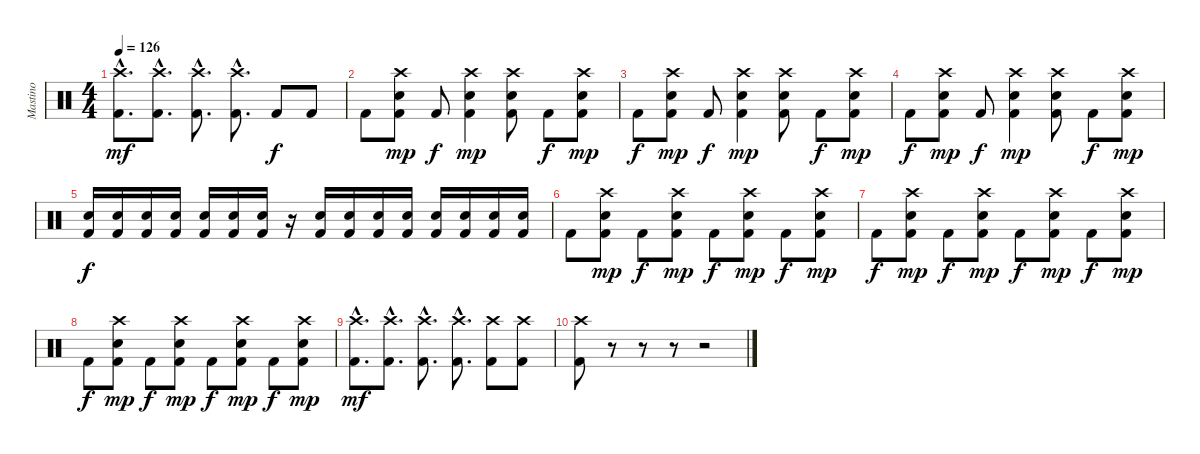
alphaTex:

\track ("Mastino" "Mastino") {instrument percussion}
\staff {score}
\articulation defaults
\ts (4 4)
\tempo 126
\clef neutral
\ks c
("Crash high (hit)"{hac} "Kick (hit) 2"{hac}).8{d dy mf} ("Crash high (hit)"{hac} "Kick (hit) 2"{hac}).8{d} ("Crash high (hit)"{hac} "Kick (hit) 2"{hac}).8{d} ("Crash high (hit)"{hac} "Kick (hit) 2"{hac}).8{d} "Kick (hit) 2".8{dy f} "Kick (hit) 2".8 |
"Kick (hit) 2".8 ("Crash high (hit)" "Electric Snare (hit)" "Kick (hit) 2").8{dy mp} "Kick (hit) 2".8{dy f} ("Crash high (hit)" "Electric Snare (hit)" "Kick (hit) 2").4{dy mp} ("Crash high (hit)" "Electric Snare (hit)" "Kick (hit) 2").8 "Kick (hit) 2".8{dy f} ("Crash high (hit)" "Electric Snare (hit)" "Kick (hit) 2").8{dy mp} |
"Kick (hit) 2".8{dy f} ("Crash high (hit)" "Electric Snare (hit)" "Kick (hit) 2").8{dy mp} "Kick (hit) 2".8{dy f} ("Crash high (hit)" "Electric Snare (hit)" "Kick (hit) 2").4{dy mp} ("Crash high (hit)" "Electric Snare (hit)" "Kick (hit) 2").8 "Kick (hit) 2".8{dy f} ("Crash high (hit)" "Electric Snare (hit)" "Kick (hit) 2").8{dy mp} |
"Kick (hit) 2".8{dy f} ("Crash high (hit)" "Electric Snare (hit)" "Kick (hit) 2").8{dy mp} "Kick (hit) 2".8{dy f} ("Crash high (hit)" "Electric Snare (hit)" "Kick (hit) 2").4{dy mp} ("Crash high (hit)" "Electric Snare (hit)" "Kick (hit) 2").8 "Kick (hit) 2".8{dy f} ("Crash high (hit)" "Electric Snare (hit)" "Kick (hit) 2").8{dy mp} |
("Electric Snare (hit)" "Kick (hit) 2").16{dy f} ("Electric Snare (hit)" "Kick (hit) 2").16 ("Electric Snare (hit)" "Kick (hit) 2").16 ("Electric Snare (hit)" "Kick (hit) 2").16 ("Electric Snare (hit)" "Kick (hit) 2").16 ("Electric Snare (hit)" "Kick (hit) 2").16 ("Electric Snare (hit)" "Kick (hit) 2").16 r.16 ("Electric Snare (hit)" "Kick (hit) 2").16 ("Electric Snare (hit)" "Kick (hit) 2").16 ("Electric Snare (hit)" "Kick (hit) 2").16 ("Electric Snare (hit)" "Kick (hit) 2").16 ("Electric Snare (hit)" "Kick (hit) 2").16 ("Electric Snare (hit)" "Kick (hit) 2").16 ("Electric Snare (hit)" "Kick (hit) 2").16 ("Electric Snare (hit)" "Kick (hit) 2").16 |
"Kick (hit) 2".8 ("Crash high (hit)" "Electric Snare (hit)" "Kick (hit) 2").8{dy mp} "Kick (hit) 2".8{dy f} ("Crash high (hit)" "Electric Snare (hit)" "Kick (hit) 2").8{dy mp} "Kick (hit) 2".8{dy f} ("Crash high (hit)" "Electric Snare (hit)" "Kick (hit) 2").8{dy mp} "Kick (hit) 2".8{dy f} ("Crash high (hit)" "Electric Snare (hit)" "Kick (hit) 2").8{dy mp} |
"Kick (hit) 2".8{dy f} ("Crash high (hit)" "Electric Snare (hit)" "Kick (hit) 2").8{dy mp} "Kick (hit) 2".8{dy f} ("Crash high (hit)" "Electric Snare (hit)" "Kick (hit) 2").8{dy mp} "Kick (hit) 2".8{dy f} ("Crash high (hit)" "Electric Snare (hit)" "Kick (hit) 2").8{dy mp} "Kick (hit) 2".8{dy f} ("Crash high (hit)" "Electric Snare (hit)" "Kick (hit) 2").8{dy mp} |
"Kick (hit) 2".8{dy f} ("Crash high (hit)" "Electric Snare (hit)" "Kick (hit) 2").8{dy mp} "Kick (hit) 2".8{dy f} ("Crash high (hit)" "Electric Snare (hit)" "Kick (hit) 2").8{dy mp} "Kick (hit) 2".8{dy f} ("Crash high (hit)" "Electric Snare (hit)" "Kick (hit) 2").8{dy mp} "Kick (hit) 2".8{dy f} ("Crash high (hit)" "Electric Snare (hit)" "Kick (hit) 2").8{dy mp} |
("Crash high (hit)"{hac} "Kick (hit) 2"{hac}).8{d dy mf} ("Crash high (hit)"{hac} "Kick (hit) 2"{hac}).8{d} ("Crash high (hit)"{hac} "Kick (hit) 2"{hac}).8{d} ("Crash high (hit)"{hac} "Kick (hit) 2"{hac}).8{d} ("Crash high (hit)" "Kick (hit) 2").8 ("Crash high (hit)" "Kick (hit) 2").8 |
("Crash high (hit)" "Kick (hit) 2").8 r.8 r.8 r.8 r.2
